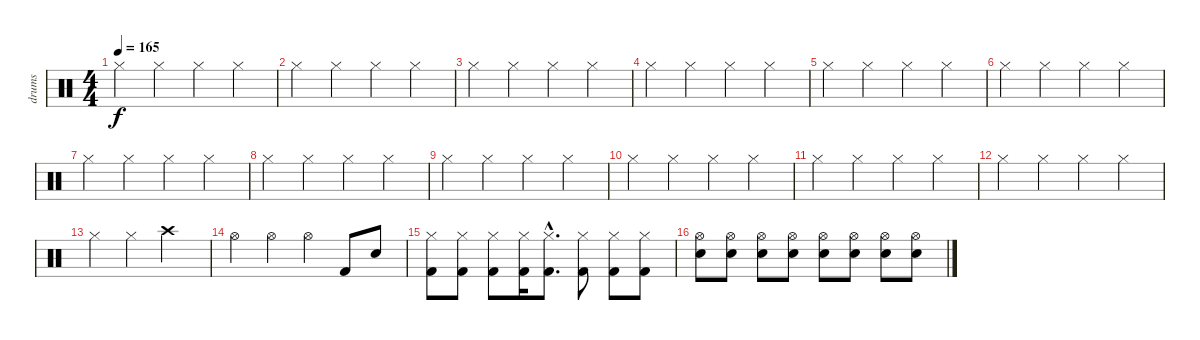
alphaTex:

\track ("drums" "drums") {instrument percussion}
\staff {score}
\articulation defaults
\ts (4 4)
\tempo 165
\clef neutral
\ks c "Hi-Hat (closed)".4{dy f} "Hi-Hat (closed)".4 "Hi-Hat (closed)".4 "Hi-Hat (closed)".4
|
"Hi-Hat (closed)".4 "Hi-Hat (closed)".4 "Hi-Hat (closed)".4 "Hi-Hat (closed)".4 |
"Hi-Hat (closed)".4 "Hi-Hat (closed)".4 "Hi-Hat (closed)".4 "Hi-Hat (closed)".4 |
"Hi-Hat (closed)".4 "Hi-Hat (closed)".4 "Hi-Hat (closed)".4 "Hi-Hat (closed)".4 |
"Hi-Hat (closed)".4 "Hi-Hat (closed)".4 "Hi-Hat (closed)".4 "Hi-Hat (closed)".4 |
"Hi-Hat (closed)".4 "Hi-Hat (closed)".4 "Hi-Hat (closed)".4 "Hi-Hat (closed)".4 |
"Hi-Hat (closed)".4 "Hi-Hat (closed)".4 "Hi-Hat (closed)".4 "Hi-Hat (closed)".4 |
"Hi-Hat (closed)".4 "Hi-Hat (closed)".4 "Hi-Hat (closed)".4 "Hi-Hat (closed)".4 |
"Hi-Hat (closed)".4 "Hi-Hat (closed)".4 "Hi-Hat (closed)".4 "Hi-Hat (closed)".4 |
"Hi-Hat (closed)".4 "Hi-Hat (closed)".4 "Hi-Hat (closed)".4 "Hi-Hat (closed)".4 |
"Hi-Hat (closed)".4 "Hi-Hat (closed)".4 "Hi-Hat (closed)".4 "Hi-Hat (closed)".4 |
"Hi-Hat (closed)".4 "Hi-Hat (closed)".4 "Hi-Hat (closed)".4 "Hi-Hat (closed)".4 |
"Hi-Hat (closed)".4 "Hi-Hat (closed)".4 "Crash high (hit)".2 |
"Hi-Hat (open)".4 "Hi-Hat (open)".4 "Hi-Hat (open)".4 "Kick (hit) 2".8 "Electric Snare (hit)".8 |
("Hi-Hat (closed)" "Kick (hit) 2").8 ("Hi-Hat (closed)" "Kick (hit) 2").8 ("Hi-Hat (closed)" "Kick (hit) 2").8 ("Hi-Hat (closed)" "Kick (hit) 2").16 ("Hi-Hat (closed)"{hac} "Kick (hit) 2"{hac}).8{d} ("Hi-Hat (closed)" "Kick (hit) 2").8 ("Hi-Hat (closed)" "Kick (hit) 2").8 ("Hi-Hat (closed)" "Kick (hit) 2").8 |
("Hi-Hat (open)" "Electric Snare (hit)").8 ("Hi-Hat (open)" "Electric Snare (hit)").8 ("Hi-Hat (open)" "Electric Snare (hit)").8 ("Hi-Hat (open)" "Electric Snare (hit)").8 ("Hi-Hat (open)" "Electric Snare (hit)").8 ("Hi-Hat (open)" "Electric Snare (hit)").8 ("Hi-Hat (open)" "Electric Snare (hit)").8 ("Hi-Hat (open)" "Electric Snare (hit)").8
